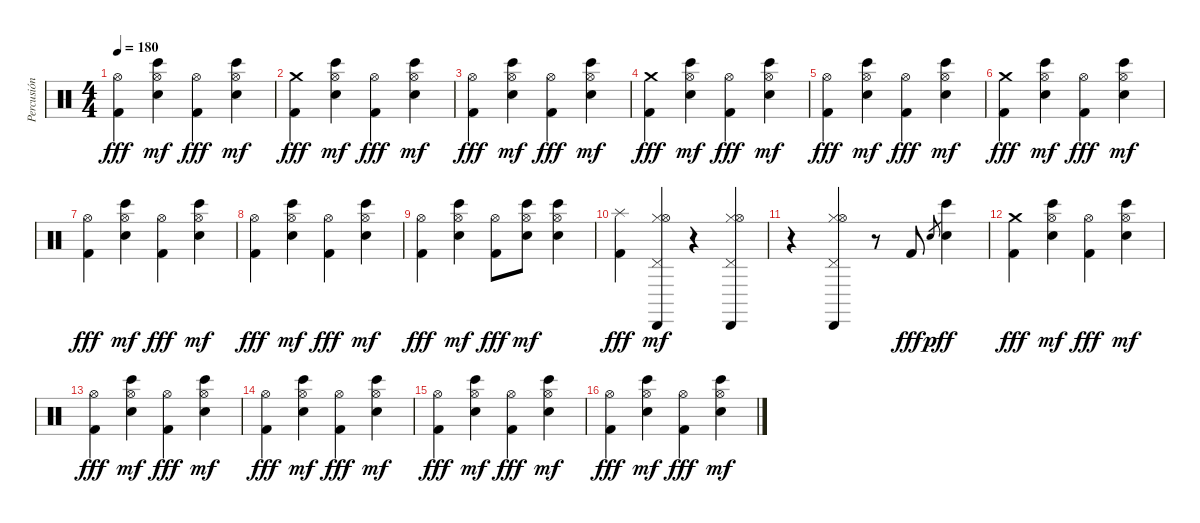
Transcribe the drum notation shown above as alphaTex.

\track ("Percusión" "Percusión") {instrument percussion}
\staff {score}
\articulation defaults
\ts (4 4)
\tempo 180
\clef neutral
\ks c
("Hi-Hat (open)" "Kick (hit) 2").4{dy fff} ("Hi-Hat (open)" "Bongo High (hit)" "Snare (hit) 2").4{dy mf} ("Hi-Hat (open)" "Kick (hit) 2").4{dy fff} ("Hi-Hat (open)" "Bongo High (hit)" "Snare (hit) 2").4{dy mf} |
("Crash medium (hit)" "Kick (hit) 2").4{dy fff} ("Hi-Hat (open)" "Bongo High (hit)" "Snare (hit) 2").4{dy mf} ("Hi-Hat (open)" "Kick (hit) 2").4{dy fff} ("Hi-Hat (open)" "Bongo High (hit)" "Snare (hit) 2").4{dy mf} |
("Hi-Hat (open)" "Kick (hit) 2").4{dy fff} ("Hi-Hat (open)" "Bongo High (hit)" "Snare (hit) 2").4{dy mf} ("Hi-Hat (open)" "Kick (hit) 2").4{dy fff} ("Hi-Hat (open)" "Bongo High (hit)" "Snare (hit) 2").4{dy mf} |
("Crash medium (hit)" "Kick (hit) 2").4{dy fff} ("Hi-Hat (open)" "Bongo High (hit)" "Snare (hit) 2").4{dy mf} ("Hi-Hat (open)" "Kick (hit) 2").4{dy fff} ("Hi-Hat (open)" "Bongo High (hit)" "Snare (hit) 2").4{dy mf} |
("Hi-Hat (open)" "Kick (hit) 2").4{dy fff} ("Hi-Hat (open)" "Bongo High (hit)" "Snare (hit) 2").4{dy mf} ("Hi-Hat (open)" "Kick (hit) 2").4{dy fff} ("Hi-Hat (open)" "Bongo High (hit)" "Snare (hit) 2").4{dy mf} |
("Crash medium (hit)" "Kick (hit) 2").4{dy fff} ("Hi-Hat (open)" "Bongo High (hit)" "Snare (hit) 2").4{dy mf} ("Hi-Hat (open)" "Kick (hit) 2").4{dy fff} ("Hi-Hat (open)" "Bongo High (hit)" "Snare (hit) 2").4{dy mf} |
("Hi-Hat (open)" "Kick (hit) 2").4{dy fff} ("Hi-Hat (open)" "Bongo High (hit)" "Snare (hit) 2").4{dy mf} ("Hi-Hat (open)" "Kick (hit) 2").4{dy fff} ("Hi-Hat (open)" "Bongo High (hit)" "Snare (hit) 2").4{dy mf} |
("Hi-Hat (open)" "Kick (hit) 2").4{dy fff} ("Hi-Hat (open)" "Bongo High (hit)" "Snare (hit) 2").4{dy mf} ("Hi-Hat (open)" "Kick (hit) 2").4{dy fff} ("Hi-Hat (open)" "Bongo High (hit)" "Snare (hit) 2").4{dy mf} |
("Hi-Hat (open)" "Kick (hit) 2").4{dy fff} ("Hi-Hat (open)" "Bongo High (hit)" "Snare (hit) 2").4{dy mf} ("Hi-Hat (open)" "Kick (hit) 2").8{dy fff} ("Hi-Hat (open)" "Bongo High (hit)" "Snare (hit) 2").8{dy mf} ("Hi-Hat (open)" "Bongo High (hit)" "Snare (hit) 2").4 |
("Splash (hit)" "Kick (hit) 2").4{dy fff} ("Hi-Hat (closed)" "Pedal Hi-Hat (hit)" "Hi-Hat (open)" "Cabasa (hit)").4{dy mf} r.4 ("Hi-Hat (closed)" "Pedal Hi-Hat (hit)" "Hi-Hat (open)" "Cabasa (hit)").4 |
r.4 ("Hi-Hat (closed)" "Pedal Hi-Hat (hit)" "Hi-Hat (open)" "Cabasa (hit)").4 r.8 "Kick (hit) 2".8{dy fff} "Snare (hit) 2".8{gr dy p} ("Bongo High (hit)" "Snare (hit) 2").4{dy ff} |
("Crash medium (hit)" "Kick (hit) 2").4{dy fff} ("Hi-Hat (open)" "Bongo High (hit)" "Snare (hit) 2").4{dy mf} ("Hi-Hat (open)" "Kick (hit) 2").4{dy fff} ("Hi-Hat (open)" "Bongo High (hit)" "Snare (hit) 2").4{dy mf} |
("Hi-Hat (open)" "Kick (hit) 2").4{dy fff} ("Hi-Hat (open)" "Bongo High (hit)" "Snare (hit) 2").4{dy mf} ("Hi-Hat (open)" "Kick (hit) 2").4{dy fff} ("Hi-Hat (open)" "Bongo High (hit)" "Snare (hit) 2").4{dy mf} |
("Hi-Hat (open)" "Kick (hit) 2").4{dy fff} ("Hi-Hat (open)" "Bongo High (hit)" "Snare (hit) 2").4{dy mf} ("Hi-Hat (open)" "Kick (hit) 2").4{dy fff} ("Hi-Hat (open)" "Bongo High (hit)" "Snare (hit) 2").4{dy mf} |
("Hi-Hat (open)" "Kick (hit) 2").4{dy fff} ("Hi-Hat (open)" "Bongo High (hit)" "Snare (hit) 2").4{dy mf} ("Hi-Hat (open)" "Kick (hit) 2").4{dy fff} ("Hi-Hat (open)" "Bongo High (hit)" "Snare (hit) 2").4{dy mf} |
("Hi-Hat (open)" "Kick (hit) 2").4{dy fff} ("Hi-Hat (open)" "Bongo High (hit)" "Snare (hit) 2").4{dy mf} ("Hi-Hat (open)" "Kick (hit) 2").4{dy fff} ("Hi-Hat (open)" "Bongo High (hit)" "Snare (hit) 2").4{dy mf}
